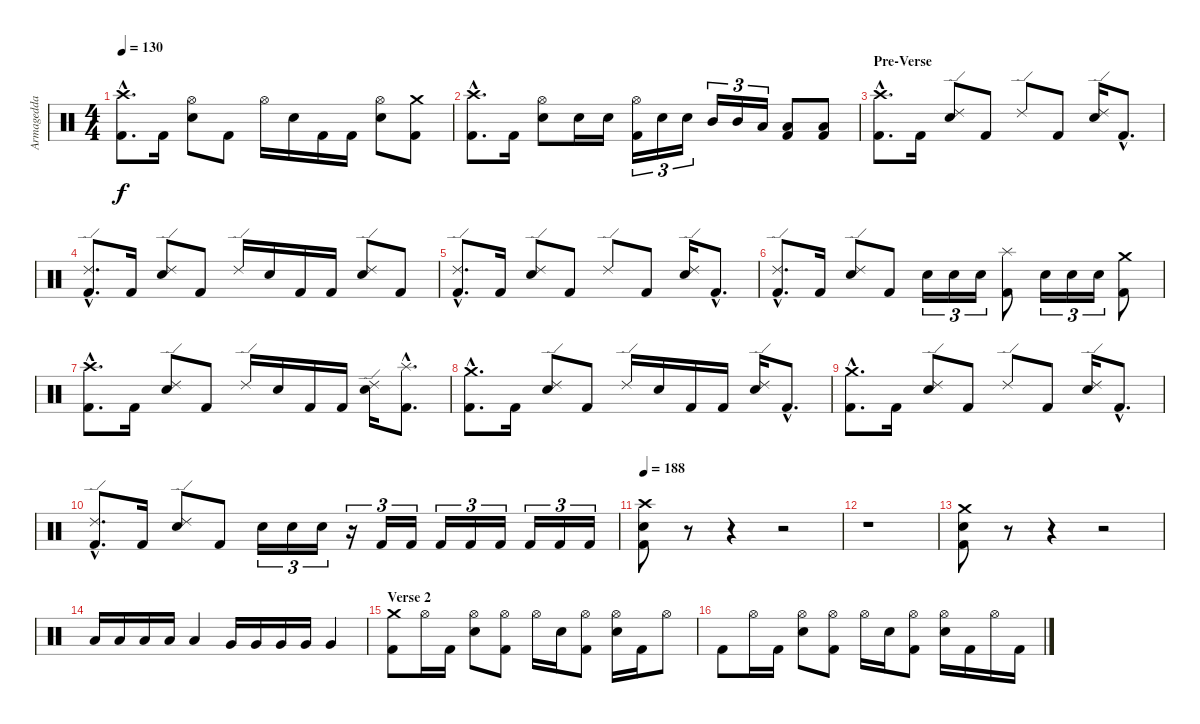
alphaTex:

\track ("Armagedda" "Armagedda") {instrument percussion}
\staff {score}
\articulation defaults
\ts (4 4)
\tempo 130
\clef neutral
\ks c
("Crash high (hit)"{hac} "Kick (hit) 2"{hac}).8{d dy f} "Kick (hit) 2".16 ("Hi-Hat (open)" "Electric Snare (hit)").8 "Kick (hit) 2".8 "Hi-Hat (open)".16 "Electric Snare (hit)".16 "Kick (hit) 2".16 "Kick (hit) 2".16 ("Hi-Hat (open)" "Electric Snare (hit)").8 ("Crash medium (hit)" "Kick (hit) 2").8 |
("Crash high (hit)"{hac} "Kick (hit) 2"{hac}).8{d} "Kick (hit) 2".16 ("Hi-Hat (open)" "Electric Snare (hit)").8 "Electric Snare (hit)".16 "Electric Snare (hit)".16 ("Hi-Hat (open)" "Kick (hit) 2").16{tu (3 2)} "Electric Snare (hit)".16{tu (3 2)} "Electric Snare (hit)".16{tu (3 2)} "Mid Tom (hit)".16{tu (3 2)} "Mid Tom (hit)".16{tu (3 2)} "Low Tom (hit)".16{tu (3 2)} ("Low Floor Tom (hit)" "Kick (hit) 2").8 ("Low Floor Tom (hit)" "Kick (hit) 2").8 |
\section ("" "Pre-Verse")
("Crash high (hit)"{hac} "Kick (hit) 2"{hac}).8{d} "Kick (hit) 2".16 ("Ride (edge) 2" "Electric Snare (hit)").8 "Kick (hit) 2".8 "Ride (edge) 2".8 "Kick (hit) 2".8 ("Ride (edge) 2" "Electric Snare (hit)").16 "Kick (hit) 2"{hac}.8{d} |
("Ride (edge) 2"{hac} "Kick (hit) 2"{hac}).8{d} "Kick (hit) 2".16 ("Ride (edge) 2" "Electric Snare (hit)").8 "Kick (hit) 2".8 "Ride (edge) 2".16 "Electric Snare (hit)".16 "Kick (hit) 2".16 "Kick (hit) 2".16 ("Ride (edge) 2" "Electric Snare (hit)").8 "Kick (hit) 2".8 |
("Ride (edge) 2"{hac} "Kick (hit) 2"{hac}).8{d} "Kick (hit) 2".16 ("Ride (edge) 2" "Electric Snare (hit)").8 "Kick (hit) 2".8 "Ride (edge) 2".8 "Kick (hit) 2".8 ("Ride (edge) 2" "Electric Snare (hit)").16 "Kick (hit) 2"{hac}.8{d} |
("Ride (edge) 2"{hac} "Kick (hit) 2"{hac}).8{d} "Kick (hit) 2".16 ("Ride (edge) 2" "Electric Snare (hit)").8 "Kick (hit) 2".8 "Electric Snare (hit)".16{tu (3 2)} "Electric Snare (hit)".16{tu (3 2)} "Electric Snare (hit)".16{tu (3 2)} ("Splash (hit)" "Kick (hit) 2").8 "Electric Snare (hit)".16{tu (3 2)} "Electric Snare (hit)".16{tu (3 2)} "Electric Snare (hit)".16{tu (3 2)} ("Crash medium (hit)" "Kick (hit) 2").8 |
("Crash high (hit)"{hac} "Kick (hit) 2"{hac}).8{d} "Kick (hit) 2".16 ("Ride (edge) 2" "Electric Snare (hit)").8 "Kick (hit) 2".8 "Ride (edge) 2".16 "Electric Snare (hit)".16 "Kick (hit) 2".16 "Kick (hit) 2".16 ("Ride (edge) 2" "Electric Snare (hit)").16 ("Splash (hit)"{hac} "Kick (hit) 2"{hac}).8{d} |
("Crash medium (hit)"{hac} "Kick (hit) 2"{hac}).8{d} "Kick (hit) 2".16 ("Ride (edge) 2" "Electric Snare (hit)").8 "Kick (hit) 2".8 "Ride (edge) 2".16 "Electric Snare (hit)".16 "Kick (hit) 2".16 "Kick (hit) 2".16 ("Ride (edge) 2" "Electric Snare (hit)").16 "Kick (hit) 2"{hac}.8{d} |
("Crash medium (hit)"{hac} "Kick (hit) 2"{hac}).8{d} "Kick (hit) 2".16 ("Ride (edge) 2" "Electric Snare (hit)").8 "Kick (hit) 2".8 "Ride (edge) 2".8 "Kick (hit) 2".8 ("Ride (edge) 2" "Electric Snare (hit)").16 "Kick (hit) 2"{hac}.8{d} |
("Ride (edge) 2"{hac} "Kick (hit) 2"{hac}).8{d} "Kick (hit) 2".16 ("Ride (edge) 2" "Electric Snare (hit)").8 "Kick (hit) 2".8 "Electric Snare (hit)".16{tu (3 2)} "Electric Snare (hit)".16{tu (3 2)} "Electric Snare (hit)".16{tu (3 2)} r.16{tu (3 2)} "Kick (hit) 2".16{tu (3 2)} "Kick (hit) 2".16{tu (3 2)} "Kick (hit) 2".16{tu (3 2)} "Kick (hit) 2".16{tu (3 2)} "Kick (hit) 2".16{tu (3 2)} "Kick (hit) 2".16{tu (3 2)} "Kick (hit) 2".16{tu (3 2)} "Kick (hit) 2".16{tu (3 2)} |
\tempo 188
("Crash high (hit)" "Electric Snare (hit)" "Kick (hit) 2").8 r.8 r.4 r.2 |
r.1 |
("Crash medium (hit)" "Electric Snare (hit)" "Kick (hit) 2").8 r.8 r.4 r.2 |
"Low Tom (hit)".16 "Low Tom (hit)".16 "Low Tom (hit)".16 "Low Tom (hit)".16 "Low Tom (hit)".4 "Very Low Tom (hit)".16 "Very Low Tom (hit)".16 "Very Low Tom (hit)".16 "Very Low Tom (hit)".16 "Very Low Tom (hit)".4 |
\section ("" "Verse 2")
("Crash medium (hit)" "Kick (hit) 2").8 "Hi-Hat (open)".16 "Kick (hit) 2".16 ("Hi-Hat (open)" "Electric Snare (hit)").8 ("Hi-Hat (open)" "Kick (hit) 2").8 "Hi-Hat (open)".16 "Electric Snare (hit)".16 ("Hi-Hat (open)" "Kick (hit) 2").8 ("Hi-Hat (open)" "Electric Snare (hit)").16 "Kick (hit) 2".16 "Hi-Hat (open)".8 |
"Kick (hit) 2".8 "Hi-Hat (open)".16 "Kick (hit) 2".16 ("Hi-Hat (open)" "Electric Snare (hit)").8 ("Hi-Hat (open)" "Kick (hit) 2").8 "Hi-Hat (open)".16 "Electric Snare (hit)".16 ("Hi-Hat (open)" "Kick (hit) 2").8 ("Hi-Hat (open)" "Electric Snare (hit)").16 "Kick (hit) 2".16 "Hi-Hat (open)".16 "Kick (hit) 2".16
